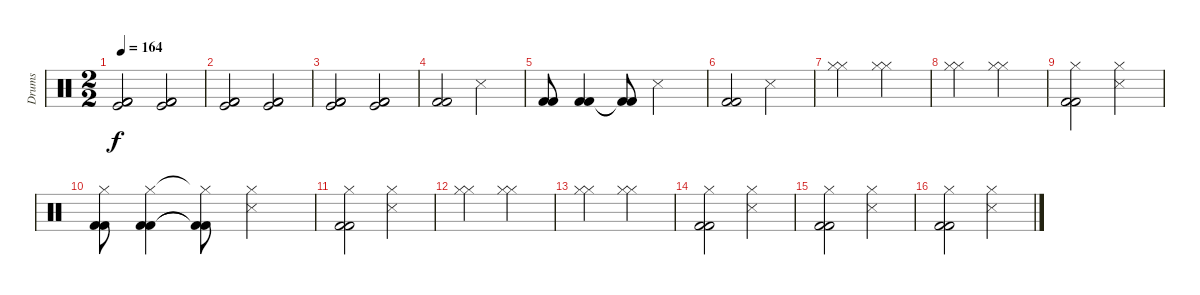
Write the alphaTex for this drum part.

\track ("Drums" "Drums") {instrument percussion}
\staff {score}
\articulation defaults
\ts (2 2)
\tempo 164
\clef neutral
\ks c
("Kick (hit) 2" "Kick (hit) 2" "Kick (hit)").2{dy f} ("Kick (hit) 2" "Kick (hit) 2" "Kick (hit)").2 |
("Kick (hit) 2" "Kick (hit) 2" "Kick (hit)").2 ("Kick (hit) 2" "Kick (hit) 2" "Kick (hit)").2 |
("Kick (hit) 2" "Kick (hit) 2" "Kick (hit)").2 ("Kick (hit) 2" "Kick (hit) 2" "Kick (hit)").2 |
("Kick (hit) 2" "Kick (hit) 2").2 "Snare (side stick) 3".2 |
("Kick (hit) 2" "Kick (hit) 2").8 ("Kick (hit) 2" "Kick (hit) 2").4 ("Kick (hit) 2"{t} "Kick (hit) 2"{t}).8 "Snare (side stick) 3".2 |
("Kick (hit) 2" "Kick (hit) 2").2 "Snare (side stick) 3".2 |
("Hi-Hat (closed)" "Hi-Hat (closed)").2 ("Hi-Hat (closed)" "Hi-Hat (closed)").2 |
("Hi-Hat (closed)" "Hi-Hat (closed)").2 ("Hi-Hat (closed)" "Hi-Hat (closed)").2 |
("Kick (hit) 2" "Kick (hit) 2" "Hi-Hat (closed)").2 ("Snare (side stick) 3" "Hi-Hat (closed)").2 |
("Kick (hit) 2" "Kick (hit) 2" "Hi-Hat (closed)").8 ("Kick (hit) 2" "Kick (hit) 2" "Hi-Hat (closed)").4 ("Kick (hit) 2"{t} "Kick (hit) 2"{t} "Hi-Hat (closed)"{t}).8 ("Snare (side stick) 3" "Hi-Hat (closed)").2 |
("Kick (hit) 2" "Kick (hit) 2" "Hi-Hat (closed)").2 ("Snare (side stick) 3" "Hi-Hat (closed)").2 |
("Hi-Hat (closed)" "Hi-Hat (closed)").2 ("Hi-Hat (closed)" "Hi-Hat (closed)").2 |
("Hi-Hat (closed)" "Hi-Hat (closed)").2 ("Hi-Hat (closed)" "Hi-Hat (closed)").2 |
("Kick (hit) 2" "Kick (hit) 2" "Hi-Hat (closed)").2 ("Snare (side stick) 3" "Hi-Hat (closed)").2 |
("Kick (hit) 2" "Kick (hit) 2" "Hi-Hat (closed)").2 ("Snare (side stick) 3" "Hi-Hat (closed)").2 |
("Kick (hit) 2" "Kick (hit) 2" "Hi-Hat (closed)").2 ("Snare (side stick) 3" "Hi-Hat (closed)").2
